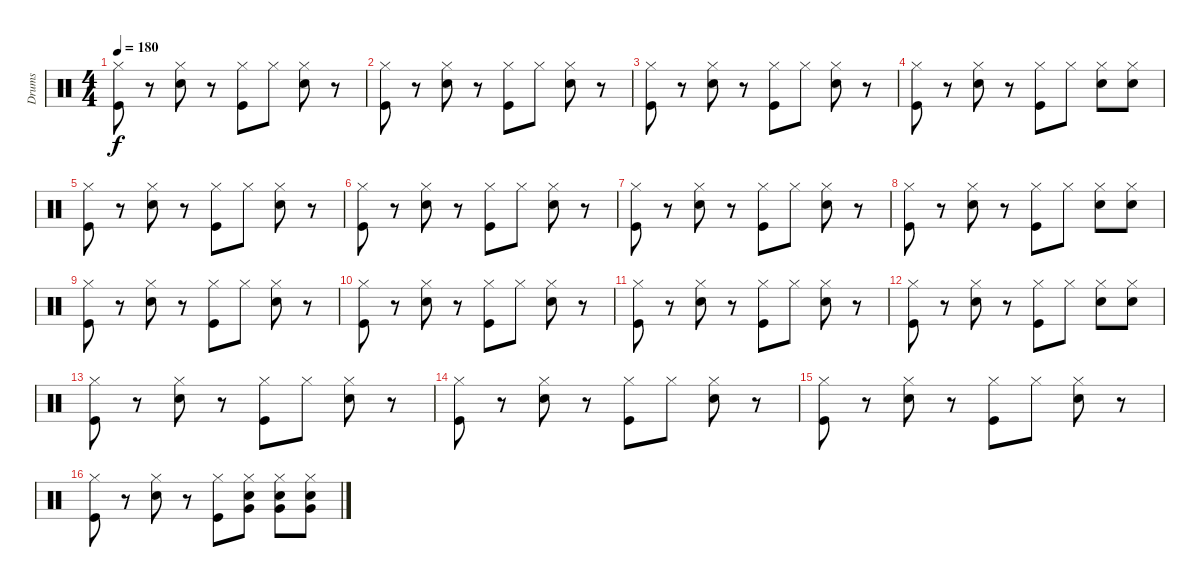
\track ("Drums" "Drums") {instrument percussion}
\staff {score}
\articulation defaults
\ts (4 4)
\tempo 180
\clef neutral
\ks c
("Hi-Hat (closed)" "Kick (hit)").8{dy f} r.8 ("Hi-Hat (closed)" "Snare (hit) 2").8 r.8 ("Hi-Hat (closed)" "Kick (hit)").8 "Hi-Hat (closed)".8 ("Hi-Hat (closed)" "Snare (hit) 2").8 r.8 |
("Hi-Hat (closed)" "Kick (hit)").8 r.8 ("Hi-Hat (closed)" "Snare (hit) 2").8 r.8 ("Hi-Hat (closed)" "Kick (hit)").8 "Hi-Hat (closed)".8 ("Hi-Hat (closed)" "Snare (hit) 2").8 r.8 |
("Hi-Hat (closed)" "Kick (hit)").8 r.8 ("Hi-Hat (closed)" "Snare (hit) 2").8 r.8 ("Hi-Hat (closed)" "Kick (hit)").8 "Hi-Hat (closed)".8 ("Hi-Hat (closed)" "Snare (hit) 2").8 r.8 |
("Hi-Hat (closed)" "Kick (hit)").8 r.8 ("Hi-Hat (closed)" "Snare (hit) 2").8 r.8 ("Hi-Hat (closed)" "Kick (hit)").8 "Hi-Hat (closed)".8 ("Hi-Hat (closed)" "Snare (hit) 2").8 ("Hi-Hat (closed)" "Snare (hit) 2").8 |
("Hi-Hat (closed)" "Kick (hit)").8 r.8 ("Hi-Hat (closed)" "Snare (hit) 2").8 r.8 ("Hi-Hat (closed)" "Kick (hit)").8 "Hi-Hat (closed)".8 ("Hi-Hat (closed)" "Snare (hit) 2").8 r.8 |
("Hi-Hat (closed)" "Kick (hit)").8 r.8 ("Hi-Hat (closed)" "Snare (hit) 2").8 r.8 ("Hi-Hat (closed)" "Kick (hit)").8 "Hi-Hat (closed)".8 ("Hi-Hat (closed)" "Snare (hit) 2").8 r.8 |
("Hi-Hat (closed)" "Kick (hit)").8 r.8 ("Hi-Hat (closed)" "Snare (hit) 2").8 r.8 ("Hi-Hat (closed)" "Kick (hit)").8 "Hi-Hat (closed)".8 ("Hi-Hat (closed)" "Snare (hit) 2").8 r.8 |
("Hi-Hat (closed)" "Kick (hit)").8 r.8 ("Hi-Hat (closed)" "Snare (hit) 2").8 r.8 ("Hi-Hat (closed)" "Kick (hit)").8 "Hi-Hat (closed)".8 ("Hi-Hat (closed)" "Snare (hit) 2").8 ("Hi-Hat (closed)" "Snare (hit) 2").8 |
("Hi-Hat (closed)" "Kick (hit)").8 r.8 ("Hi-Hat (closed)" "Snare (hit) 2").8 r.8 ("Hi-Hat (closed)" "Kick (hit)").8 "Hi-Hat (closed)".8 ("Hi-Hat (closed)" "Snare (hit) 2").8 r.8 |
("Hi-Hat (closed)" "Kick (hit)").8 r.8 ("Hi-Hat (closed)" "Snare (hit) 2").8 r.8 ("Hi-Hat (closed)" "Kick (hit)").8 "Hi-Hat (closed)".8 ("Hi-Hat (closed)" "Snare (hit) 2").8 r.8 |
("Hi-Hat (closed)" "Kick (hit)").8 r.8 ("Hi-Hat (closed)" "Snare (hit) 2").8 r.8 ("Hi-Hat (closed)" "Kick (hit)").8 "Hi-Hat (closed)".8 ("Hi-Hat (closed)" "Snare (hit) 2").8 r.8 |
("Hi-Hat (closed)" "Kick (hit)").8 r.8 ("Hi-Hat (closed)" "Snare (hit) 2").8 r.8 ("Hi-Hat (closed)" "Kick (hit)").8 "Hi-Hat (closed)".8 ("Hi-Hat (closed)" "Snare (hit) 2").8 ("Hi-Hat (closed)" "Snare (hit) 2").8 |
("Hi-Hat (closed)" "Kick (hit)").8 r.8 ("Hi-Hat (closed)" "Snare (hit) 2").8 r.8 ("Hi-Hat (closed)" "Kick (hit)").8 "Hi-Hat (closed)".8 ("Hi-Hat (closed)" "Snare (hit) 2").8 r.8 |
("Hi-Hat (closed)" "Kick (hit)").8 r.8 ("Hi-Hat (closed)" "Snare (hit) 2").8 r.8 ("Hi-Hat (closed)" "Kick (hit)").8 "Hi-Hat (closed)".8 ("Hi-Hat (closed)" "Snare (hit) 2").8 r.8 |
("Hi-Hat (closed)" "Kick (hit)").8 r.8 ("Hi-Hat (closed)" "Snare (hit) 2").8 r.8 ("Hi-Hat (closed)" "Kick (hit)").8 "Hi-Hat (closed)".8 ("Hi-Hat (closed)" "Snare (hit) 2").8 r.8 |
("Hi-Hat (closed)" "Kick (hit)").8 r.8 ("Hi-Hat (closed)" "Snare (hit) 2").8 r.8 ("Hi-Hat (closed)" "Kick (hit)").8 ("Hi-Hat (closed)" "Snare (hit) 2" "Very Low Tom (hit)").8 ("Hi-Hat (closed)" "Snare (hit) 2" "Very Low Tom (hit)").8 ("Hi-Hat (closed)" "Snare (hit) 2" "Very Low Tom (hit)").8
